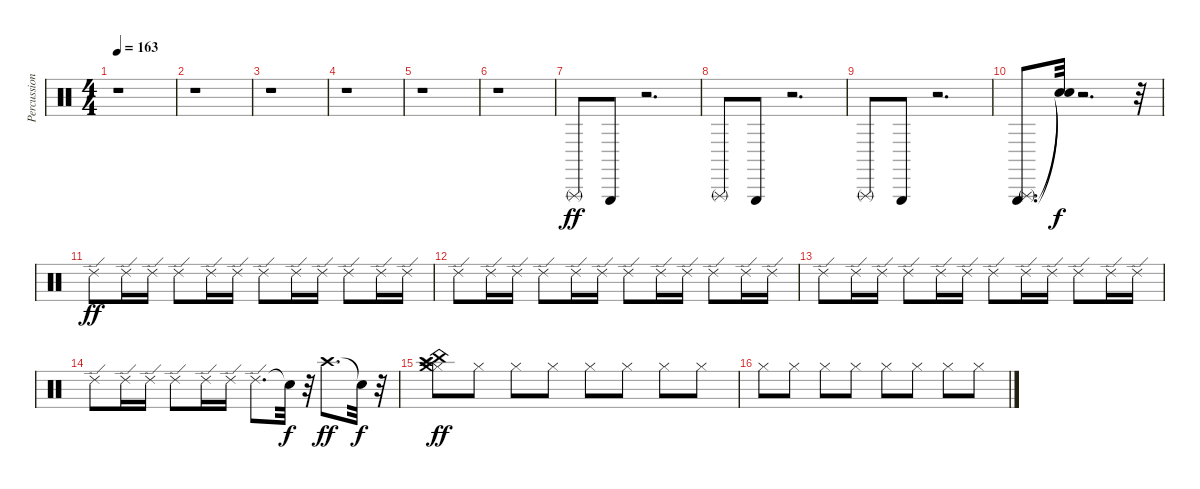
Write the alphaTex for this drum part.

\track ("Percussion (Standard Kit)" "Percussion") {instrument percussion}
\staff {score}
\articulation defaults
\ts (4 4)
\tempo 163
\clef neutral
\ks c
r.1{dy ff} |
r.1 |
r.1 |
r.1 |
r.1 |
r.1 |
"Triangle (rnute)".8 "Triangle (hit)".8 r.2{d} |
"Triangle (rnute)".8 "Triangle (hit)".8 r.2{d} |
"Triangle (rnute)".8 "Triangle (hit)".8 r.2{d} |
("Triangle (rnute)" "Triangle (hit)").8{d} ("Snare (hit)"{t} "Snare (hit)"{t}).32{dy f} r.2{d} r.32 |
"Ride (edge) 2".8{dy ff} "Ride (edge) 2".16 "Ride (edge) 2".16 "Ride (edge) 2".8 "Ride (edge) 2".16 "Ride (edge) 2".16 "Ride (edge) 2".8 "Ride (edge) 2".16 "Ride (edge) 2".16 "Ride (edge) 2".8 "Ride (edge) 2".16 "Ride (edge) 2".16 |
"Ride (edge) 2".8 "Ride (edge) 2".16 "Ride (edge) 2".16 "Ride (edge) 2".8 "Ride (edge) 2".16 "Ride (edge) 2".16 "Ride (edge) 2".8 "Ride (edge) 2".16 "Ride (edge) 2".16 "Ride (edge) 2".8 "Ride (edge) 2".16 "Ride (edge) 2".16 |
"Ride (edge) 2".8 "Ride (edge) 2".16 "Ride (edge) 2".16 "Ride (edge) 2".8 "Ride (edge) 2".16 "Ride (edge) 2".16 "Ride (edge) 2".8 "Ride (edge) 2".16 "Ride (edge) 2".16 "Ride (edge) 2".8 "Ride (edge) 2".16 "Ride (edge) 2".16 |
"Ride (edge) 2".8 "Ride (edge) 2".16 "Ride (edge) 2".16 "Ride (edge) 2".8 "Ride (edge) 2".16 "Ride (edge) 2".16 "Ride (edge) 2".8{d} "Snare (hit)"{t}.32{dy f} r.32 "Crash high (hit)".8{d dy ff} "Snare (hit)"{t}.32{dy f} r.32 |
("Hi-Hat (closed)" "Crash high (hit)" "China (hit)" "Splash (hit)" "Crash medium (hit)").8{dy ff} "Hi-Hat (closed)".8 "Hi-Hat (closed)".8 "Hi-Hat (closed)".8 "Hi-Hat (closed)".8 "Hi-Hat (closed)".8 "Hi-Hat (closed)".8 "Hi-Hat (closed)".8 |
"Hi-Hat (closed)".8 "Hi-Hat (closed)".8 "Hi-Hat (closed)".8 "Hi-Hat (closed)".8 "Hi-Hat (closed)".8 "Hi-Hat (closed)".8 "Hi-Hat (closed)".8 "Hi-Hat (closed)".8
